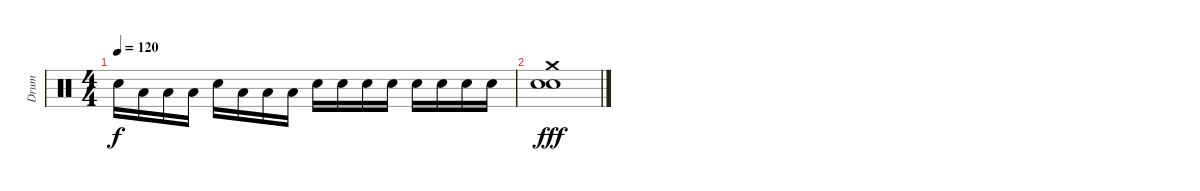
\track ("Drum" "Drum") {instrument percussion}
\staff {score}
\articulation defaults
\ts (4 4)
\tempo 120
\clef neutral
\ks c "Snare (hit) 2".16{dy f} "Low Tom (hit)".16 "Low Tom (hit)".16 "Low Tom (hit)".16 "Snare (hit) 2".16 "Low Tom (hit)".16 "Low Tom (hit)".16 "Low Tom (hit)".16 "Snare (hit) 2".16 "Snare (hit) 2".16 "Snare (hit) 2".16 "Snare (hit) 2".16 "Snare (hit) 2".16 "Snare (hit) 2".16 "Snare (hit) 2".16 "Snare (hit) 2".16
|
("Crash medium (hit)" "Snare (hit) 2" "Snare (hit) 2").1{dy fff}
